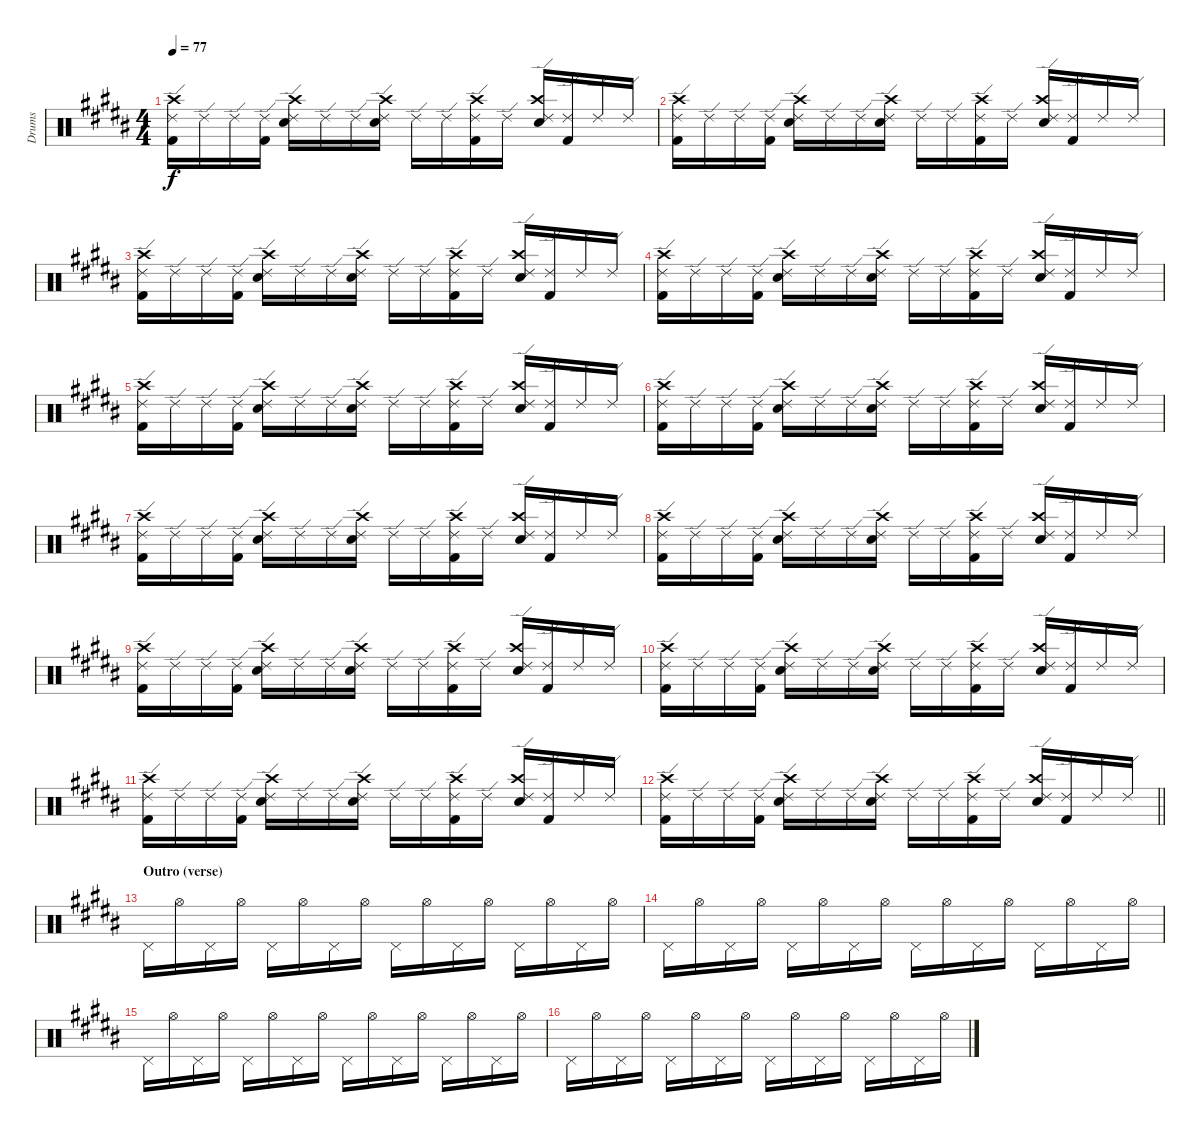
\track ("Drums" "Drums") {instrument percussion}
\staff {score}
\articulation defaults
\ts (4 4)
\tempo 77
\clef neutral
\ks g#minor
("Kick (hit) 2" "Ride (edge) 2" "Crash high (hit)").16{dy f} "Ride (edge) 2".16 "Ride (edge) 2".16 ("Kick (hit) 2" "Ride (edge) 2").16 ("Ride (edge) 2" "Snare (hit) 2" "Crash high (hit)").16 "Ride (edge) 2".16 "Ride (edge) 2".16 ("Ride (edge) 2" "Snare (hit) 2" "Crash high (hit)").16 "Ride (edge) 2".16 "Ride (edge) 2".16 ("Kick (hit) 2" "Ride (edge) 2" "Crash high (hit)").16 "Ride (edge) 2".16 ("Ride (edge) 2" "Snare (hit) 2" "Crash high (hit)").16 ("Kick (hit) 2" "Ride (edge) 2").16 "Ride (edge) 2".16 "Ride (edge) 2".16 |
("Kick (hit) 2" "Ride (edge) 2" "Crash high (hit)").16 "Ride (edge) 2".16 "Ride (edge) 2".16 ("Kick (hit) 2" "Ride (edge) 2").16 ("Ride (edge) 2" "Snare (hit) 2" "Crash high (hit)").16 "Ride (edge) 2".16 "Ride (edge) 2".16 ("Ride (edge) 2" "Snare (hit) 2" "Crash high (hit)").16 "Ride (edge) 2".16 "Ride (edge) 2".16 ("Kick (hit) 2" "Ride (edge) 2" "Crash high (hit)").16 "Ride (edge) 2".16 ("Ride (edge) 2" "Snare (hit) 2" "Crash high (hit)").16 ("Kick (hit) 2" "Ride (edge) 2").16 "Ride (edge) 2".16 "Ride (edge) 2".16 |
("Kick (hit) 2" "Ride (edge) 2" "Crash high (hit)").16 "Ride (edge) 2".16 "Ride (edge) 2".16 ("Kick (hit) 2" "Ride (edge) 2").16 ("Ride (edge) 2" "Snare (hit) 2" "Crash high (hit)").16 "Ride (edge) 2".16 "Ride (edge) 2".16 ("Ride (edge) 2" "Snare (hit) 2" "Crash high (hit)").16 "Ride (edge) 2".16 "Ride (edge) 2".16 ("Kick (hit) 2" "Ride (edge) 2" "Crash high (hit)").16 "Ride (edge) 2".16 ("Ride (edge) 2" "Snare (hit) 2" "Crash high (hit)").16 ("Kick (hit) 2" "Ride (edge) 2").16 "Ride (edge) 2".16 "Ride (edge) 2".16 |
("Kick (hit) 2" "Ride (edge) 2" "Crash high (hit)").16 "Ride (edge) 2".16 "Ride (edge) 2".16 ("Kick (hit) 2" "Ride (edge) 2").16 ("Ride (edge) 2" "Snare (hit) 2" "Crash high (hit)").16 "Ride (edge) 2".16 "Ride (edge) 2".16 ("Ride (edge) 2" "Snare (hit) 2" "Crash high (hit)").16 "Ride (edge) 2".16 "Ride (edge) 2".16 ("Kick (hit) 2" "Ride (edge) 2" "Crash high (hit)").16 "Ride (edge) 2".16 ("Ride (edge) 2" "Snare (hit) 2" "Crash high (hit)").16 ("Kick (hit) 2" "Ride (edge) 2").16 "Ride (edge) 2".16 "Ride (edge) 2".16 |
("Kick (hit) 2" "Ride (edge) 2" "Crash high (hit)").16 "Ride (edge) 2".16 "Ride (edge) 2".16 ("Kick (hit) 2" "Ride (edge) 2").16 ("Ride (edge) 2" "Snare (hit) 2" "Crash high (hit)").16 "Ride (edge) 2".16 "Ride (edge) 2".16 ("Ride (edge) 2" "Snare (hit) 2" "Crash high (hit)").16 "Ride (edge) 2".16 "Ride (edge) 2".16 ("Kick (hit) 2" "Ride (edge) 2" "Crash high (hit)").16 "Ride (edge) 2".16 ("Ride (edge) 2" "Snare (hit) 2" "Crash high (hit)").16 ("Kick (hit) 2" "Ride (edge) 2").16 "Ride (edge) 2".16 "Ride (edge) 2".16 |
("Kick (hit) 2" "Ride (edge) 2" "Crash high (hit)").16 "Ride (edge) 2".16 "Ride (edge) 2".16 ("Kick (hit) 2" "Ride (edge) 2").16 ("Ride (edge) 2" "Snare (hit) 2" "Crash high (hit)").16 "Ride (edge) 2".16 "Ride (edge) 2".16 ("Ride (edge) 2" "Snare (hit) 2" "Crash high (hit)").16 "Ride (edge) 2".16 "Ride (edge) 2".16 ("Kick (hit) 2" "Ride (edge) 2" "Crash high (hit)").16 "Ride (edge) 2".16 ("Ride (edge) 2" "Snare (hit) 2" "Crash high (hit)").16 ("Kick (hit) 2" "Ride (edge) 2").16 "Ride (edge) 2".16 "Ride (edge) 2".16 |
("Kick (hit) 2" "Ride (edge) 2" "Crash high (hit)").16 "Ride (edge) 2".16 "Ride (edge) 2".16 ("Kick (hit) 2" "Ride (edge) 2").16 ("Ride (edge) 2" "Snare (hit) 2" "Crash high (hit)").16 "Ride (edge) 2".16 "Ride (edge) 2".16 ("Ride (edge) 2" "Snare (hit) 2" "Crash high (hit)").16 "Ride (edge) 2".16 "Ride (edge) 2".16 ("Kick (hit) 2" "Ride (edge) 2" "Crash high (hit)").16 "Ride (edge) 2".16 ("Ride (edge) 2" "Snare (hit) 2" "Crash high (hit)").16 ("Kick (hit) 2" "Ride (edge) 2").16 "Ride (edge) 2".16 "Ride (edge) 2".16 |
("Kick (hit) 2" "Ride (edge) 2" "Crash high (hit)").16 "Ride (edge) 2".16 "Ride (edge) 2".16 ("Kick (hit) 2" "Ride (edge) 2").16 ("Ride (edge) 2" "Snare (hit) 2" "Crash high (hit)").16 "Ride (edge) 2".16 "Ride (edge) 2".16 ("Ride (edge) 2" "Snare (hit) 2" "Crash high (hit)").16 "Ride (edge) 2".16 "Ride (edge) 2".16 ("Kick (hit) 2" "Ride (edge) 2" "Crash high (hit)").16 "Ride (edge) 2".16 ("Ride (edge) 2" "Snare (hit) 2" "Crash high (hit)").16 ("Kick (hit) 2" "Ride (edge) 2").16 "Ride (edge) 2".16 "Ride (edge) 2".16 |
("Kick (hit) 2" "Ride (edge) 2" "Crash high (hit)").16 "Ride (edge) 2".16 "Ride (edge) 2".16 ("Kick (hit) 2" "Ride (edge) 2").16 ("Ride (edge) 2" "Snare (hit) 2" "Crash high (hit)").16 "Ride (edge) 2".16 "Ride (edge) 2".16 ("Ride (edge) 2" "Snare (hit) 2" "Crash high (hit)").16 "Ride (edge) 2".16 "Ride (edge) 2".16 ("Kick (hit) 2" "Ride (edge) 2" "Crash high (hit)").16 "Ride (edge) 2".16 ("Ride (edge) 2" "Snare (hit) 2" "Crash high (hit)").16 ("Kick (hit) 2" "Ride (edge) 2").16 "Ride (edge) 2".16 "Ride (edge) 2".16 |
("Kick (hit) 2" "Ride (edge) 2" "Crash high (hit)").16 "Ride (edge) 2".16 "Ride (edge) 2".16 ("Kick (hit) 2" "Ride (edge) 2").16 ("Ride (edge) 2" "Snare (hit) 2" "Crash high (hit)").16 "Ride (edge) 2".16 "Ride (edge) 2".16 ("Ride (edge) 2" "Snare (hit) 2" "Crash high (hit)").16 "Ride (edge) 2".16 "Ride (edge) 2".16 ("Kick (hit) 2" "Ride (edge) 2" "Crash high (hit)").16 "Ride (edge) 2".16 ("Ride (edge) 2" "Snare (hit) 2" "Crash high (hit)").16 ("Kick (hit) 2" "Ride (edge) 2").16 "Ride (edge) 2".16 "Ride (edge) 2".16 |
("Kick (hit) 2" "Ride (edge) 2" "Crash high (hit)").16 "Ride (edge) 2".16 "Ride (edge) 2".16 ("Kick (hit) 2" "Ride (edge) 2").16 ("Ride (edge) 2" "Snare (hit) 2" "Crash high (hit)").16 "Ride (edge) 2".16 "Ride (edge) 2".16 ("Ride (edge) 2" "Snare (hit) 2" "Crash high (hit)").16 "Ride (edge) 2".16 "Ride (edge) 2".16 ("Kick (hit) 2" "Ride (edge) 2" "Crash high (hit)").16 "Ride (edge) 2".16 ("Ride (edge) 2" "Snare (hit) 2" "Crash high (hit)").16 ("Kick (hit) 2" "Ride (edge) 2").16 "Ride (edge) 2".16 "Ride (edge) 2".16 |
\barLineRight lightlight
("Kick (hit) 2" "Ride (edge) 2" "Crash high (hit)").16 "Ride (edge) 2".16 "Ride (edge) 2".16 ("Kick (hit) 2" "Ride (edge) 2").16 ("Ride (edge) 2" "Snare (hit) 2" "Crash high (hit)").16 "Ride (edge) 2".16 "Ride (edge) 2".16 ("Ride (edge) 2" "Snare (hit) 2" "Crash high (hit)").16 "Ride (edge) 2".16 "Ride (edge) 2".16 ("Kick (hit) 2" "Ride (edge) 2" "Crash high (hit)").16 "Ride (edge) 2".16 ("Ride (edge) 2" "Snare (hit) 2" "Crash high (hit)").16 ("Kick (hit) 2" "Ride (edge) 2").16 "Ride (edge) 2".16 "Ride (edge) 2".16 |
\section ("" "Outro (verse)")
"Pedal Hi-Hat (hit)".16 "Hi-Hat (open)".16 "Pedal Hi-Hat (hit)".16 "Hi-Hat (open)".16 "Pedal Hi-Hat (hit)".16 "Hi-Hat (open)".16 "Pedal Hi-Hat (hit)".16 "Hi-Hat (open)".16 "Pedal Hi-Hat (hit)".16 "Hi-Hat (open)".16 "Pedal Hi-Hat (hit)".16 "Hi-Hat (open)".16 "Pedal Hi-Hat (hit)".16 "Hi-Hat (open)".16 "Pedal Hi-Hat (hit)".16 "Hi-Hat (open)".16 |
"Pedal Hi-Hat (hit)".16 "Hi-Hat (open)".16 "Pedal Hi-Hat (hit)".16 "Hi-Hat (open)".16 "Pedal Hi-Hat (hit)".16 "Hi-Hat (open)".16 "Pedal Hi-Hat (hit)".16 "Hi-Hat (open)".16 "Pedal Hi-Hat (hit)".16 "Hi-Hat (open)".16 "Pedal Hi-Hat (hit)".16 "Hi-Hat (open)".16 "Pedal Hi-Hat (hit)".16 "Hi-Hat (open)".16 "Pedal Hi-Hat (hit)".16 "Hi-Hat (open)".16 |
"Pedal Hi-Hat (hit)".16 "Hi-Hat (open)".16 "Pedal Hi-Hat (hit)".16 "Hi-Hat (open)".16 "Pedal Hi-Hat (hit)".16 "Hi-Hat (open)".16 "Pedal Hi-Hat (hit)".16 "Hi-Hat (open)".16 "Pedal Hi-Hat (hit)".16 "Hi-Hat (open)".16 "Pedal Hi-Hat (hit)".16 "Hi-Hat (open)".16 "Pedal Hi-Hat (hit)".16 "Hi-Hat (open)".16 "Pedal Hi-Hat (hit)".16 "Hi-Hat (open)".16 |
"Pedal Hi-Hat (hit)".16 "Hi-Hat (open)".16 "Pedal Hi-Hat (hit)".16 "Hi-Hat (open)".16 "Pedal Hi-Hat (hit)".16 "Hi-Hat (open)".16 "Pedal Hi-Hat (hit)".16 "Hi-Hat (open)".16 "Pedal Hi-Hat (hit)".16 "Hi-Hat (open)".16 "Pedal Hi-Hat (hit)".16 "Hi-Hat (open)".16 "Pedal Hi-Hat (hit)".16 "Hi-Hat (open)".16 "Pedal Hi-Hat (hit)".16 "Hi-Hat (open)".16
